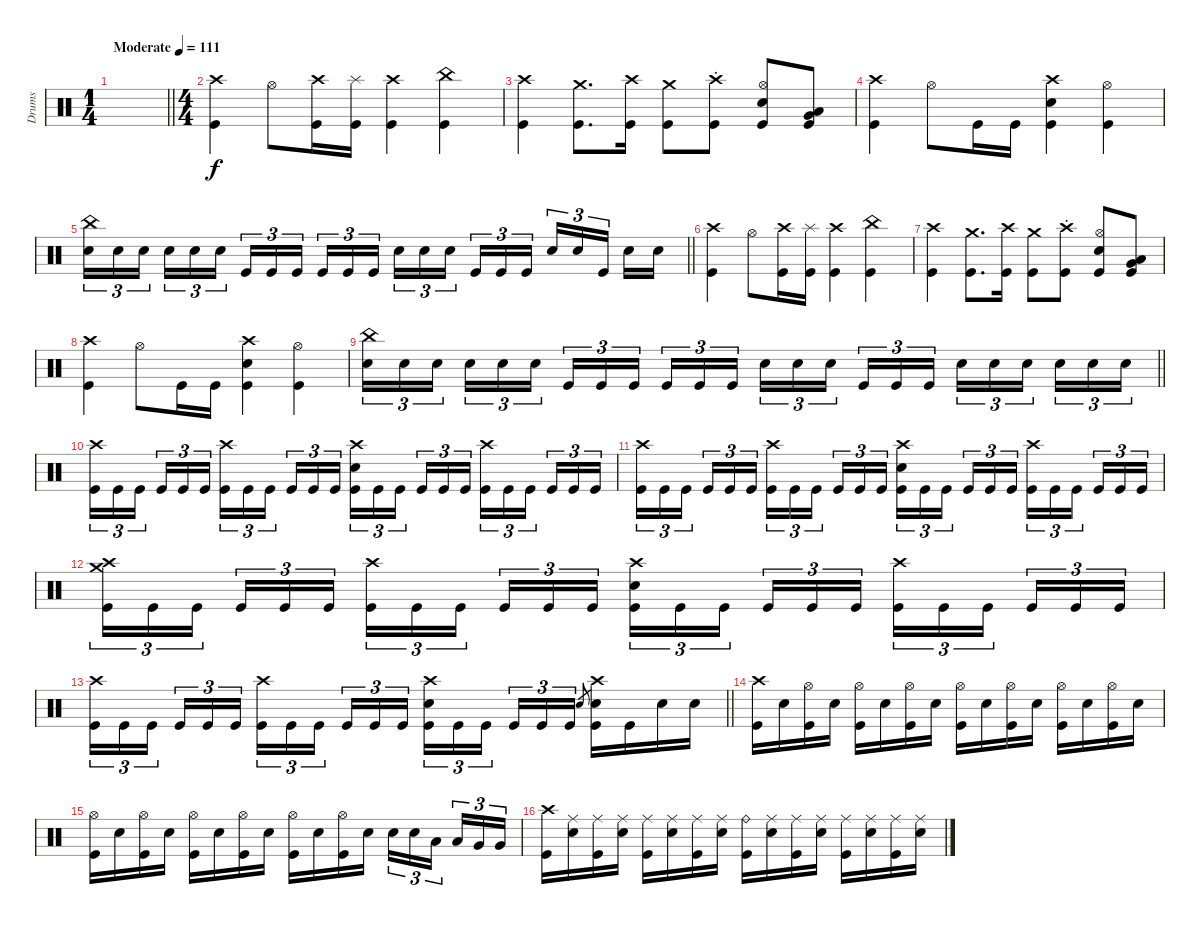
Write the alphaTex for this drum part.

\track ("Drums" "Drums") {instrument percussion}
\staff
\articulation defaults
\ts (1 4)
\tempo (111 "Moderate")
\clef neutral
\barLineRight lightlight
\ks c
|
\ts (4 4)
("Crash high (hit)" "Kick (hit)").4 "Hi-Hat (open)".8 ("Crash high (hit)" "Kick (hit)").16 ("Splash (hit)" "Kick (hit)").16 ("Crash high (hit)" "Kick (hit)").4 ("China (hit)" "Kick (hit)").4 |
("Crash high (hit)" "Kick (hit)").4 ("Crash medium (hit)" "Kick (hit)").8{d} ("Crash high (hit)" "Kick (hit)").16 ("Crash medium (hit)" "Kick (hit)").8 ("Crash high (hit)"{st} "Kick (hit)").8 ("Hi-Hat (open)" "Electric Snare (hit)" "Kick (hit)").8 ("Very Low Tom (hit)" "Low Floor Tom (hit)" "Kick (hit)").8 |
("Crash high (hit)" "Kick (hit)").4 "Hi-Hat (open)".8 "Kick (hit)".16 "Kick (hit)".16 ("Crash high (hit)" "Electric Snare (hit)" "Kick (hit)").4 ("Hi-Hat (open)" "Kick (hit)").4 |
\barLineRight lightlight
("China (hit)" "Electric Snare (hit)").16{tu (3 2)} "Electric Snare (hit)".16{tu (3 2)} "Electric Snare (hit)".16{tu (3 2) beam splitsecondary} "Electric Snare (hit)".16{tu (3 2)} "Electric Snare (hit)".16{tu (3 2)} "Electric Snare (hit)".16{tu (3 2)} "Kick (hit)".16{tu (3 2)} "Kick (hit)".16{tu (3 2)} "Kick (hit)".16{tu (3 2) beam splitsecondary} "Kick (hit)".16{tu (3 2)} "Kick (hit)".16{tu (3 2)} "Kick (hit)".16{tu (3 2)} "Electric Snare (hit)".16{tu (3 2)} "Electric Snare (hit)".16{tu (3 2)} "Electric Snare (hit)".16{tu (3 2) beam splitsecondary} "Kick (hit)".16{tu (3 2)} "Kick (hit)".16{tu (3 2)} "Kick (hit)".16{tu (3 2)} "Electric Snare (hit)".16{tu (3 2)} "Electric Snare (hit)".16{tu (3 2)} "Kick (hit)".16{tu (3 2) beam splitsecondary} "Electric Snare (hit)".16 "Electric Snare (hit)".16 |
("Crash high (hit)" "Kick (hit)").4 "Hi-Hat (open)".8 ("Crash high (hit)" "Kick (hit)").16 ("Splash (hit)" "Kick (hit)").16 ("Crash high (hit)" "Kick (hit)").4 ("China (hit)" "Kick (hit)").4 |
("Crash high (hit)" "Kick (hit)").4 ("Crash medium (hit)" "Kick (hit)").8{d} ("Crash high (hit)" "Kick (hit)").16 ("Crash medium (hit)" "Kick (hit)").8 ("Crash high (hit)"{st} "Kick (hit)").8 ("Hi-Hat (open)" "Electric Snare (hit)" "Kick (hit)").8 ("Very Low Tom (hit)" "Low Floor Tom (hit)" "Kick (hit)").8 |
("Crash high (hit)" "Kick (hit)").4 "Hi-Hat (open)".8 "Kick (hit)".16 "Kick (hit)".16 ("Crash high (hit)" "Electric Snare (hit)" "Kick (hit)").4 ("Hi-Hat (open)" "Kick (hit)").4 |
\barLineRight lightlight
("China (hit)" "Electric Snare (hit)").16{tu (3 2)} "Electric Snare (hit)".16{tu (3 2)} "Electric Snare (hit)".16{tu (3 2) beam splitsecondary} "Electric Snare (hit)".16{tu (3 2)} "Electric Snare (hit)".16{tu (3 2)} "Electric Snare (hit)".16{tu (3 2)} "Kick (hit)".16{tu (3 2)} "Kick (hit)".16{tu (3 2)} "Kick (hit)".16{tu (3 2) beam splitsecondary} "Kick (hit)".16{tu (3 2)} "Kick (hit)".16{tu (3 2)} "Kick (hit)".16{tu (3 2)} "Electric Snare (hit)".16{tu (3 2)} "Electric Snare (hit)".16{tu (3 2)} "Electric Snare (hit)".16{tu (3 2) beam splitsecondary} "Kick (hit)".16{tu (3 2)} "Kick (hit)".16{tu (3 2)} "Kick (hit)".16{tu (3 2)} "Electric Snare (hit)".16{tu (3 2)} "Electric Snare (hit)".16{tu (3 2)} "Electric Snare (hit)".16{tu (3 2) beam splitsecondary} "Electric Snare (hit)".16{tu (3 2)} "Electric Snare (hit)".16{tu (3 2)} "Electric Snare (hit)".16{tu (3 2)} |
("Crash high (hit)" "Kick (hit)").16{tu (3 2)} "Kick (hit)".16{tu (3 2)} "Kick (hit)".16{tu (3 2) beam splitsecondary} "Kick (hit)".16{tu (3 2)} "Kick (hit)".16{tu (3 2)} "Kick (hit)".16{tu (3 2)} ("Crash high (hit)" "Kick (hit)").16{tu (3 2)} "Kick (hit)".16{tu (3 2)} "Kick (hit)".16{tu (3 2) beam splitsecondary} "Kick (hit)".16{tu (3 2)} "Kick (hit)".16{tu (3 2)} "Kick (hit)".16{tu (3 2)} ("Crash high (hit)" "Electric Snare (hit)" "Kick (hit)").16{tu (3 2)} "Kick (hit)".16{tu (3 2)} "Kick (hit)".16{tu (3 2) beam splitsecondary} "Kick (hit)".16{tu (3 2)} "Kick (hit)".16{tu (3 2)} "Kick (hit)".16{tu (3 2)} ("Crash high (hit)" "Kick (hit)").16{tu (3 2)} "Kick (hit)".16{tu (3 2)} "Kick (hit)".16{tu (3 2) beam splitsecondary} "Kick (hit)".16{tu (3 2)} "Kick (hit)".16{tu (3 2)} "Kick (hit)".16{tu (3 2)} |
("Crash high (hit)" "Kick (hit)").16{tu (3 2)} "Kick (hit)".16{tu (3 2)} "Kick (hit)".16{tu (3 2) beam splitsecondary} "Kick (hit)".16{tu (3 2)} "Kick (hit)".16{tu (3 2)} "Kick (hit)".16{tu (3 2)} ("Crash high (hit)" "Kick (hit)").16{tu (3 2)} "Kick (hit)".16{tu (3 2)} "Kick (hit)".16{tu (3 2) beam splitsecondary} "Kick (hit)".16{tu (3 2)} "Kick (hit)".16{tu (3 2)} "Kick (hit)".16{tu (3 2)} ("Crash high (hit)" "Electric Snare (hit)" "Kick (hit)").16{tu (3 2)} "Kick (hit)".16{tu (3 2)} "Kick (hit)".16{tu (3 2) beam splitsecondary} "Kick (hit)".16{tu (3 2)} "Kick (hit)".16{tu (3 2)} "Kick (hit)".16{tu (3 2)} ("Crash high (hit)" "Kick (hit)").16{tu (3 2)} "Kick (hit)".16{tu (3 2)} "Kick (hit)".16{tu (3 2) beam splitsecondary} "Kick (hit)".16{tu (3 2)} "Kick (hit)".16{tu (3 2)} "Kick (hit)".16{tu (3 2)} |
("Crash high (hit)" "Crash medium (hit)" "Kick (hit)").16{tu (3 2)} "Kick (hit)".16{tu (3 2)} "Kick (hit)".16{tu (3 2) beam splitsecondary} "Kick (hit)".16{tu (3 2)} "Kick (hit)".16{tu (3 2)} "Kick (hit)".16{tu (3 2)} ("Crash high (hit)" "Kick (hit)").16{tu (3 2)} "Kick (hit)".16{tu (3 2)} "Kick (hit)".16{tu (3 2) beam splitsecondary} "Kick (hit)".16{tu (3 2)} "Kick (hit)".16{tu (3 2)} "Kick (hit)".16{tu (3 2)} ("Crash high (hit)" "Electric Snare (hit)" "Kick (hit)").16{tu (3 2)} "Kick (hit)".16{tu (3 2)} "Kick (hit)".16{tu (3 2) beam splitsecondary} "Kick (hit)".16{tu (3 2)} "Kick (hit)".16{tu (3 2)} "Kick (hit)".16{tu (3 2)} ("Crash high (hit)" "Kick (hit)").16{tu (3 2)} "Kick (hit)".16{tu (3 2)} "Kick (hit)".16{tu (3 2) beam splitsecondary} "Kick (hit)".16{tu (3 2)} "Kick (hit)".16{tu (3 2)} "Kick (hit)".16{tu (3 2)} |
\barLineRight lightlight
("Crash high (hit)" "Kick (hit)").16{tu (3 2)} "Kick (hit)".16{tu (3 2)} "Kick (hit)".16{tu (3 2) beam splitsecondary} "Kick (hit)".16{tu (3 2)} "Kick (hit)".16{tu (3 2)} "Kick (hit)".16{tu (3 2)} ("Crash high (hit)" "Kick (hit)").16{tu (3 2)} "Kick (hit)".16{tu (3 2)} "Kick (hit)".16{tu (3 2) beam splitsecondary} "Kick (hit)".16{tu (3 2)} "Kick (hit)".16{tu (3 2)} "Kick (hit)".16{tu (3 2)} ("Crash high (hit)" "Electric Snare (hit)" "Kick (hit)").16{tu (3 2)} "Kick (hit)".16{tu (3 2)} "Kick (hit)".16{tu (3 2) beam splitsecondary} "Kick (hit)".16{tu (3 2)} "Kick (hit)".16{tu (3 2)} "Kick (hit)".16{tu (3 2)} "Electric Snare (hit)".8{gr} ("Crash high (hit)" "Electric Snare (hit)" "Kick (hit)").16 "Kick (hit)".16 "Electric Snare (hit)".16 "Electric Snare (hit)".16 |
("Crash high (hit)" "Kick (hit)").16 "Electric Snare (hit)".16 ("Hi-Hat (open)" "Kick (hit)").16 "Electric Snare (hit)".16 ("Hi-Hat (open)" "Kick (hit)").16 "Electric Snare (hit)".16 ("Hi-Hat (open)" "Kick (hit)").16 "Electric Snare (hit)".16 ("Hi-Hat (open)" "Kick (hit)").16 "Electric Snare (hit)".16 ("Hi-Hat (open)" "Kick (hit)").16 "Electric Snare (hit)".16 ("Hi-Hat (open)" "Kick (hit)").16 "Electric Snare (hit)".16 ("Hi-Hat (open)" "Kick (hit)").16 "Electric Snare (hit)".16 |
("Hi-Hat (open)" "Kick (hit)").16 "Electric Snare (hit)".16 ("Hi-Hat (open)" "Kick (hit)").16 "Electric Snare (hit)".16 ("Hi-Hat (open)" "Kick (hit)").16 "Electric Snare (hit)".16 ("Hi-Hat (open)" "Kick (hit)").16 "Electric Snare (hit)".16 ("Hi-Hat (open)" "Kick (hit)").16 "Electric Snare (hit)".16 ("Hi-Hat (open)" "Kick (hit)").16 "Electric Snare (hit)".16 "Electric Snare (hit)".16{tu (3 2)} "Electric Snare (hit)".16{tu (3 2)} "Low Tom (hit)".16{tu (3 2) beam splitsecondary} "Low Tom (hit)".16{tu (3 2)} "Very Low Tom (hit)".16{tu (3 2)} "Very Low Tom (hit)".16{tu (3 2)} |
("Crash high (hit)" "Kick (hit)").16 ("Ride (middle)" "Electric Snare (hit)").16 ("Ride (middle)" "Kick (hit)").16 ("Ride (middle)" "Electric Snare (hit)").16 ("Ride (middle)" "Kick (hit)").16 ("Ride (middle)" "Electric Snare (hit)").16 ("Ride (middle)" "Kick (hit)").16 ("Ride (middle)" "Electric Snare (hit)").16 ("Ride (bell)" "Kick (hit)").16 ("Ride (middle)" "Electric Snare (hit)").16 ("Ride (middle)" "Kick (hit)").16 ("Ride (middle)" "Electric Snare (hit)").16 ("Ride (middle)" "Kick (hit)").16 ("Ride (middle)" "Electric Snare (hit)").16 ("Ride (middle)" "Kick (hit)").16 ("Ride (middle)" "Electric Snare (hit)").16
